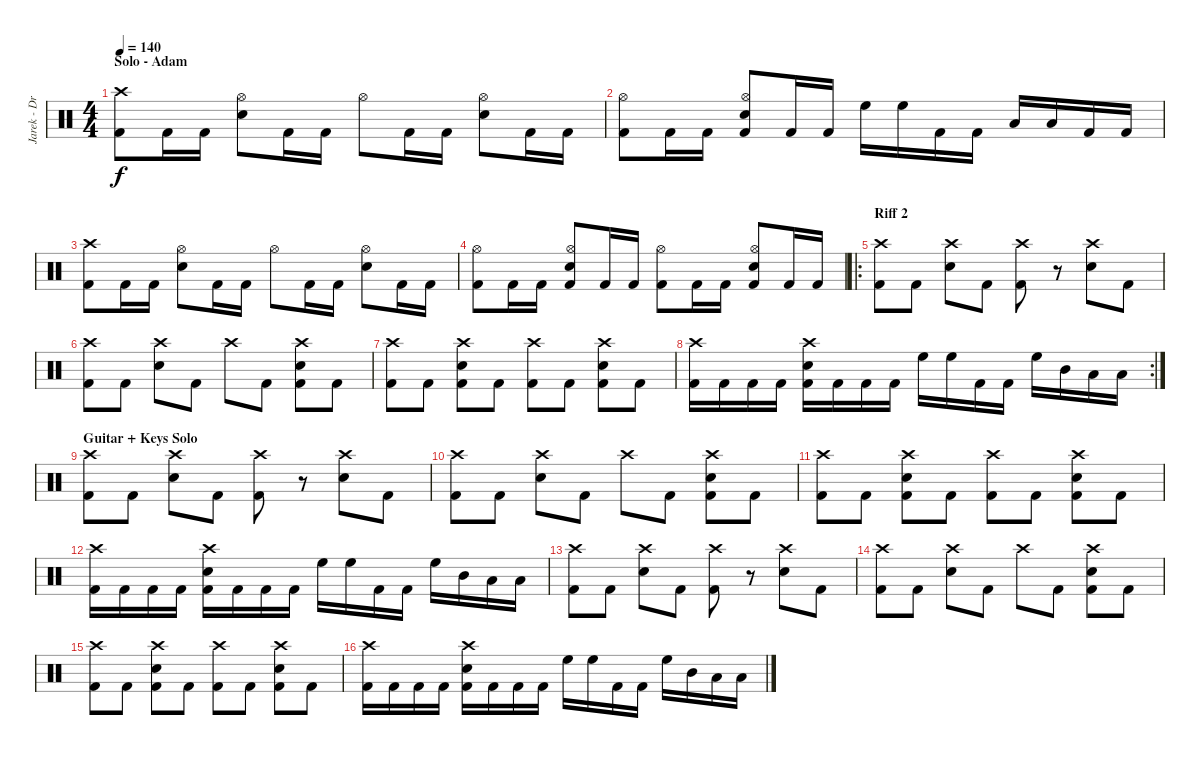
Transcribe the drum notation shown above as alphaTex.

\track ("Jarek - Drums" "Jarek - Dr") {instrument percussion}
\staff {score}
\articulation defaults
\ts (4 4)
\section ("" "Solo - Adam")
\tempo 140
\clef neutral
\ks c
("Crash high (hit)" "Kick (hit) 2").8{dy f} "Kick (hit) 2".16 "Kick (hit) 2".16 ("Hi-Hat (open)" "Snare (hit) 2").8 "Kick (hit) 2".16 "Kick (hit) 2".16 "Hi-Hat (open)".8 "Kick (hit) 2".16 "Kick (hit) 2".16 ("Hi-Hat (open)" "Snare (hit) 2").8 "Kick (hit) 2".16 "Kick (hit) 2".16 |
("Hi-Hat (open)" "Kick (hit) 2").8 "Kick (hit) 2".16 "Kick (hit) 2".16 ("Hi-Hat (open)" "Snare (hit) 2" "Kick (hit) 2").8 "Kick (hit) 2".16 "Kick (hit) 2".16 "High Floor Tom (hit)".16 "High Floor Tom (hit)".16 "Kick (hit) 2".16 "Kick (hit) 2".16 "Low Tom (hit)".16 "Low Tom (hit)".16 "Kick (hit) 2".16 "Kick (hit) 2".16 |
("Crash high (hit)" "Kick (hit) 2").8 "Kick (hit) 2".16 "Kick (hit) 2".16 ("Hi-Hat (open)" "Snare (hit) 2").8 "Kick (hit) 2".16 "Kick (hit) 2".16 "Hi-Hat (open)".8 "Kick (hit) 2".16 "Kick (hit) 2".16 ("Hi-Hat (open)" "Snare (hit) 2").8 "Kick (hit) 2".16 "Kick (hit) 2".16 |
("Hi-Hat (open)" "Kick (hit) 2").8 "Kick (hit) 2".16 "Kick (hit) 2".16 ("Hi-Hat (open)" "Snare (hit) 2" "Kick (hit) 2").8 "Kick (hit) 2".16 "Kick (hit) 2".16 ("Hi-Hat (open)" "Kick (hit) 2").8 "Kick (hit) 2".16 "Kick (hit) 2".16 ("Hi-Hat (open)" "Snare (hit) 2" "Kick (hit) 2").8 "Kick (hit) 2".16 "Kick (hit) 2".16 |
\ro
\section ("" "Riff 2")
("Crash high (hit)" "Kick (hit) 2").8 "Kick (hit) 2".8 ("Crash high (hit)" "Snare (hit) 2").8 "Kick (hit) 2".8 ("Crash high (hit)" "Kick (hit) 2").8 r.8 ("Crash high (hit)" "Snare (hit) 2").8 "Kick (hit) 2".8 |
("Crash high (hit)" "Kick (hit) 2").8 "Kick (hit) 2".8 ("Crash high (hit)" "Snare (hit) 2").8 "Kick (hit) 2".8 "Crash high (hit)".8 "Kick (hit) 2".8 ("Crash high (hit)" "Snare (hit) 2" "Kick (hit) 2").8 "Kick (hit) 2".8 |
("Crash high (hit)" "Kick (hit) 2").8 "Kick (hit) 2".8 ("Crash high (hit)" "Snare (hit) 2" "Kick (hit) 2").8 "Kick (hit) 2".8 ("Crash high (hit)" "Kick (hit) 2").8 "Kick (hit) 2".8 ("Crash high (hit)" "Snare (hit) 2" "Kick (hit) 2").8 "Kick (hit) 2".8 |
\rc 2
("Crash high (hit)" "Kick (hit) 2").16 "Kick (hit) 2".16 "Kick (hit) 2".16 "Kick (hit) 2".16 ("Crash high (hit)" "Snare (hit) 2" "Kick (hit) 2").16 "Kick (hit) 2".16 "Kick (hit) 2".16 "Kick (hit) 2".16 "High Floor Tom (hit)".16 "High Floor Tom (hit)".16 "Kick (hit) 2".16 "Kick (hit) 2".16 "High Floor Tom (hit)".16 "Mid Tom (hit)".16 "Low Tom (hit)".16 "Low Floor Tom (hit)".16 |
\section ("" "Guitar + Keys Solo")
("Crash high (hit)" "Kick (hit) 2").8 "Kick (hit) 2".8 ("Crash high (hit)" "Snare (hit) 2").8 "Kick (hit) 2".8 ("Crash high (hit)" "Kick (hit) 2").8 r.8 ("Crash high (hit)" "Snare (hit) 2").8 "Kick (hit) 2".8 |
("Crash high (hit)" "Kick (hit) 2").8 "Kick (hit) 2".8 ("Crash high (hit)" "Snare (hit) 2").8 "Kick (hit) 2".8 "Crash high (hit)".8 "Kick (hit) 2".8 ("Crash high (hit)" "Snare (hit) 2" "Kick (hit) 2").8 "Kick (hit) 2".8 |
("Crash high (hit)" "Kick (hit) 2").8 "Kick (hit) 2".8 ("Crash high (hit)" "Snare (hit) 2" "Kick (hit) 2").8 "Kick (hit) 2".8 ("Crash high (hit)" "Kick (hit) 2").8 "Kick (hit) 2".8 ("Crash high (hit)" "Snare (hit) 2" "Kick (hit) 2").8 "Kick (hit) 2".8 |
("Crash high (hit)" "Kick (hit) 2").16 "Kick (hit) 2".16 "Kick (hit) 2".16 "Kick (hit) 2".16 ("Crash high (hit)" "Snare (hit) 2" "Kick (hit) 2").16 "Kick (hit) 2".16 "Kick (hit) 2".16 "Kick (hit) 2".16 "High Floor Tom (hit)".16 "High Floor Tom (hit)".16 "Kick (hit) 2".16 "Kick (hit) 2".16 "High Floor Tom (hit)".16 "Mid Tom (hit)".16 "Low Tom (hit)".16 "Low Floor Tom (hit)".16 |
("Crash high (hit)" "Kick (hit) 2").8 "Kick (hit) 2".8 ("Crash high (hit)" "Snare (hit) 2").8 "Kick (hit) 2".8 ("Crash high (hit)" "Kick (hit) 2").8 r.8 ("Crash high (hit)" "Snare (hit) 2").8 "Kick (hit) 2".8 |
("Crash high (hit)" "Kick (hit) 2").8 "Kick (hit) 2".8 ("Crash high (hit)" "Snare (hit) 2").8 "Kick (hit) 2".8 "Crash high (hit)".8 "Kick (hit) 2".8 ("Crash high (hit)" "Snare (hit) 2" "Kick (hit) 2").8 "Kick (hit) 2".8 |
("Crash high (hit)" "Kick (hit) 2").8 "Kick (hit) 2".8 ("Crash high (hit)" "Snare (hit) 2" "Kick (hit) 2").8 "Kick (hit) 2".8 ("Crash high (hit)" "Kick (hit) 2").8 "Kick (hit) 2".8 ("Crash high (hit)" "Snare (hit) 2" "Kick (hit) 2").8 "Kick (hit) 2".8 |
("Crash high (hit)" "Kick (hit) 2").16 "Kick (hit) 2".16 "Kick (hit) 2".16 "Kick (hit) 2".16 ("Crash high (hit)" "Snare (hit) 2" "Kick (hit) 2").16 "Kick (hit) 2".16 "Kick (hit) 2".16 "Kick (hit) 2".16 "High Floor Tom (hit)".16 "High Floor Tom (hit)".16 "Kick (hit) 2".16 "Kick (hit) 2".16 "High Floor Tom (hit)".16 "Mid Tom (hit)".16 "Low Tom (hit)".16 "Low Floor Tom (hit)".16
